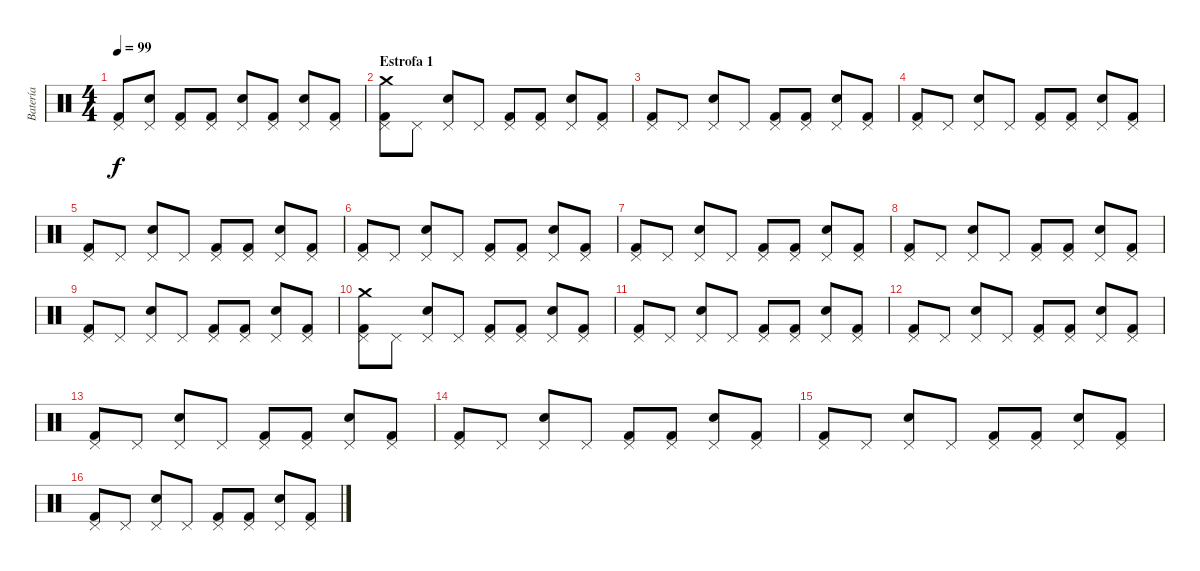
\track ("Batería" "Batería") {instrument percussion}
\staff {score}
\articulation defaults
\ts (4 4)
\tempo 99
\clef neutral
\ks c
("Kick (hit) 2" "Pedal Hi-Hat (hit)").8{dy f} ("Snare (hit) 2" "Pedal Hi-Hat (hit)").8 ("Kick (hit) 2" "Pedal Hi-Hat (hit)").8 ("Kick (hit) 2" "Pedal Hi-Hat (hit)").8 ("Pedal Hi-Hat (hit)" "Snare (hit) 2").8 ("Pedal Hi-Hat (hit)" "Kick (hit) 2").8 ("Pedal Hi-Hat (hit)" "Snare (hit) 2").8 ("Pedal Hi-Hat (hit)" "Kick (hit) 2").8 |
\section ("" "Estrofa 1")
("Crash medium (hit)" "Pedal Hi-Hat (hit)" "Kick (hit) 2").8 "Pedal Hi-Hat (hit)".8 ("Snare (hit) 2" "Pedal Hi-Hat (hit)").8 "Pedal Hi-Hat (hit)".8 ("Pedal Hi-Hat (hit)" "Kick (hit) 2").8 ("Kick (hit) 2" "Pedal Hi-Hat (hit)").8 ("Pedal Hi-Hat (hit)" "Snare (hit) 2").8 ("Kick (hit) 2" "Pedal Hi-Hat (hit)").8 |
("Kick (hit) 2" "Pedal Hi-Hat (hit)").8 "Pedal Hi-Hat (hit)".8 ("Snare (hit) 2" "Pedal Hi-Hat (hit)").8 "Pedal Hi-Hat (hit)".8 ("Kick (hit) 2" "Pedal Hi-Hat (hit)").8 ("Kick (hit) 2" "Pedal Hi-Hat (hit)").8 ("Snare (hit) 2" "Pedal Hi-Hat (hit)").8 ("Kick (hit) 2" "Pedal Hi-Hat (hit)").8 |
("Pedal Hi-Hat (hit)" "Kick (hit) 2").8 "Pedal Hi-Hat (hit)".8 ("Pedal Hi-Hat (hit)" "Snare (hit) 2").8 "Pedal Hi-Hat (hit)".8 ("Pedal Hi-Hat (hit)" "Kick (hit) 2").8 ("Pedal Hi-Hat (hit)" "Kick (hit) 2").8 ("Pedal Hi-Hat (hit)" "Snare (hit) 2").8 ("Pedal Hi-Hat (hit)" "Kick (hit) 2").8 |
("Kick (hit) 2" "Pedal Hi-Hat (hit)").8 "Pedal Hi-Hat (hit)".8 ("Snare (hit) 2" "Pedal Hi-Hat (hit)").8 "Pedal Hi-Hat (hit)".8 ("Kick (hit) 2" "Pedal Hi-Hat (hit)").8 ("Kick (hit) 2" "Pedal Hi-Hat (hit)").8 ("Snare (hit) 2" "Pedal Hi-Hat (hit)").8 ("Kick (hit) 2" "Pedal Hi-Hat (hit)").8 |
("Pedal Hi-Hat (hit)" "Kick (hit) 2").8 "Pedal Hi-Hat (hit)".8 ("Snare (hit) 2" "Pedal Hi-Hat (hit)").8 "Pedal Hi-Hat (hit)".8 ("Pedal Hi-Hat (hit)" "Kick (hit) 2").8 ("Kick (hit) 2" "Pedal Hi-Hat (hit)").8 ("Pedal Hi-Hat (hit)" "Snare (hit) 2").8 ("Kick (hit) 2" "Pedal Hi-Hat (hit)").8 |
("Kick (hit) 2" "Pedal Hi-Hat (hit)").8 "Pedal Hi-Hat (hit)".8 ("Snare (hit) 2" "Pedal Hi-Hat (hit)").8 "Pedal Hi-Hat (hit)".8 ("Kick (hit) 2" "Pedal Hi-Hat (hit)").8 ("Kick (hit) 2" "Pedal Hi-Hat (hit)").8 ("Snare (hit) 2" "Pedal Hi-Hat (hit)").8 ("Kick (hit) 2" "Pedal Hi-Hat (hit)").8 |
("Kick (hit) 2" "Pedal Hi-Hat (hit)").8 "Pedal Hi-Hat (hit)".8 ("Snare (hit) 2" "Pedal Hi-Hat (hit)").8 "Pedal Hi-Hat (hit)".8 ("Kick (hit) 2" "Pedal Hi-Hat (hit)").8 ("Kick (hit) 2" "Pedal Hi-Hat (hit)").8 ("Snare (hit) 2" "Pedal Hi-Hat (hit)").8 ("Kick (hit) 2" "Pedal Hi-Hat (hit)").8 |
("Pedal Hi-Hat (hit)" "Kick (hit) 2").8 "Pedal Hi-Hat (hit)".8 ("Pedal Hi-Hat (hit)" "Snare (hit) 2").8 "Pedal Hi-Hat (hit)".8 ("Pedal Hi-Hat (hit)" "Kick (hit) 2").8 ("Pedal Hi-Hat (hit)" "Kick (hit) 2").8 ("Pedal Hi-Hat (hit)" "Snare (hit) 2").8 ("Pedal Hi-Hat (hit)" "Kick (hit) 2").8 |
("Crash medium (hit)" "Pedal Hi-Hat (hit)" "Kick (hit) 2").8 "Pedal Hi-Hat (hit)".8 ("Snare (hit) 2" "Pedal Hi-Hat (hit)").8 "Pedal Hi-Hat (hit)".8 ("Pedal Hi-Hat (hit)" "Kick (hit) 2").8 ("Kick (hit) 2" "Pedal Hi-Hat (hit)").8 ("Pedal Hi-Hat (hit)" "Snare (hit) 2").8 ("Kick (hit) 2" "Pedal Hi-Hat (hit)").8 |
("Kick (hit) 2" "Pedal Hi-Hat (hit)").8 "Pedal Hi-Hat (hit)".8 ("Snare (hit) 2" "Pedal Hi-Hat (hit)").8 "Pedal Hi-Hat (hit)".8 ("Kick (hit) 2" "Pedal Hi-Hat (hit)").8 ("Kick (hit) 2" "Pedal Hi-Hat (hit)").8 ("Snare (hit) 2" "Pedal Hi-Hat (hit)").8 ("Kick (hit) 2" "Pedal Hi-Hat (hit)").8 |
("Pedal Hi-Hat (hit)" "Kick (hit) 2").8 "Pedal Hi-Hat (hit)".8 ("Pedal Hi-Hat (hit)" "Snare (hit) 2").8 "Pedal Hi-Hat (hit)".8 ("Pedal Hi-Hat (hit)" "Kick (hit) 2").8 ("Pedal Hi-Hat (hit)" "Kick (hit) 2").8 ("Pedal Hi-Hat (hit)" "Snare (hit) 2").8 ("Pedal Hi-Hat (hit)" "Kick (hit) 2").8 |
("Pedal Hi-Hat (hit)" "Kick (hit) 2").8 "Pedal Hi-Hat (hit)".8 ("Pedal Hi-Hat (hit)" "Snare (hit) 2").8 "Pedal Hi-Hat (hit)".8 ("Pedal Hi-Hat (hit)" "Kick (hit) 2").8 ("Pedal Hi-Hat (hit)" "Kick (hit) 2").8 ("Pedal Hi-Hat (hit)" "Snare (hit) 2").8 ("Pedal Hi-Hat (hit)" "Kick (hit) 2").8 |
("Pedal Hi-Hat (hit)" "Kick (hit) 2").8 "Pedal Hi-Hat (hit)".8 ("Snare (hit) 2" "Pedal Hi-Hat (hit)").8 "Pedal Hi-Hat (hit)".8 ("Pedal Hi-Hat (hit)" "Kick (hit) 2").8 ("Kick (hit) 2" "Pedal Hi-Hat (hit)").8 ("Pedal Hi-Hat (hit)" "Snare (hit) 2").8 ("Kick (hit) 2" "Pedal Hi-Hat (hit)").8 |
("Pedal Hi-Hat (hit)" "Kick (hit) 2").8 "Pedal Hi-Hat (hit)".8 ("Pedal Hi-Hat (hit)" "Snare (hit) 2").8 "Pedal Hi-Hat (hit)".8 ("Pedal Hi-Hat (hit)" "Kick (hit) 2").8 ("Pedal Hi-Hat (hit)" "Kick (hit) 2").8 ("Pedal Hi-Hat (hit)" "Snare (hit) 2").8 ("Pedal Hi-Hat (hit)" "Kick (hit) 2").8 |
("Pedal Hi-Hat (hit)" "Kick (hit) 2").8 "Pedal Hi-Hat (hit)".8 ("Pedal Hi-Hat (hit)" "Snare (hit) 2").8 "Pedal Hi-Hat (hit)".8 ("Pedal Hi-Hat (hit)" "Kick (hit) 2").8 ("Pedal Hi-Hat (hit)" "Kick (hit) 2").8 ("Pedal Hi-Hat (hit)" "Snare (hit) 2").8 ("Pedal Hi-Hat (hit)" "Kick (hit) 2").8
